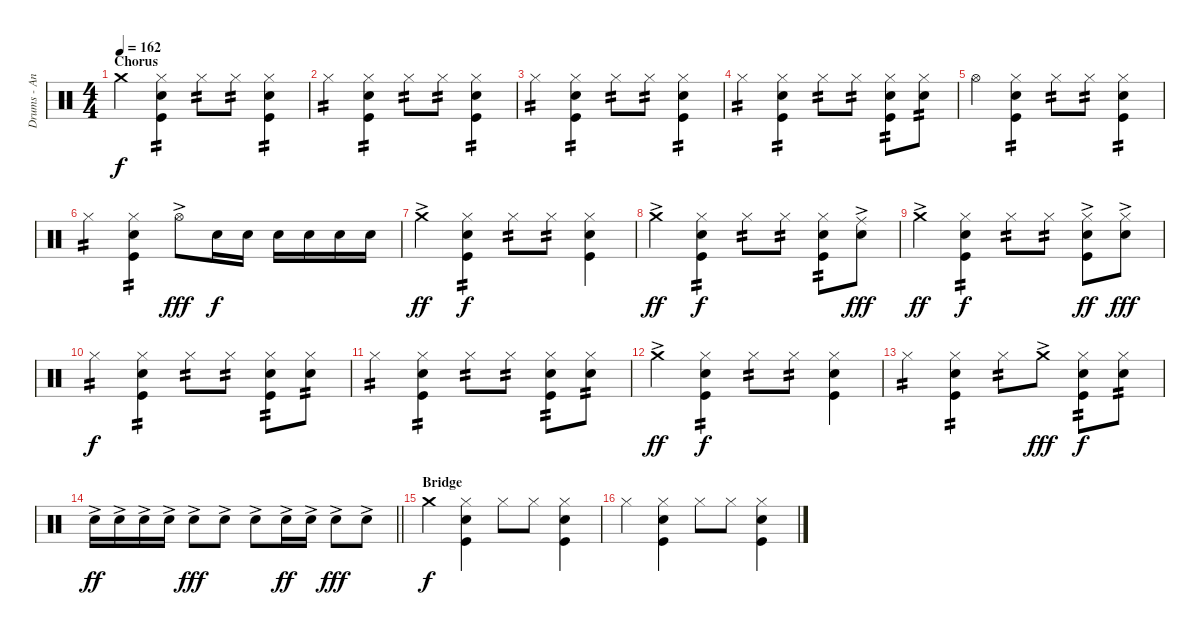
\track ("Drums - Andriushkin" "Drums - An") {instrument percussion}
\staff {score}
\articulation defaults
\ts (4 4)
\section ("" "Chorus")
\tempo 162
\clef neutral
\ks c "Crash medium (hit)".4{dy f}
("Hi-Hat (closed)" "Electric Snare (hit)" "Kick (hit)").4{tp 2} "Hi-Hat (closed)".8{tp 2} "Hi-Hat (closed)".8{tp 2} ("Hi-Hat (closed)" "Electric Snare (hit)" "Kick (hit)").4{tp 2} |
"Hi-Hat (closed)".4{tp 2} ("Hi-Hat (closed)" "Electric Snare (hit)" "Kick (hit)").4{tp 2} "Hi-Hat (closed)".8{tp 2} "Hi-Hat (closed)".8{tp 2} ("Hi-Hat (closed)" "Electric Snare (hit)" "Kick (hit)").4{tp 2} |
"Hi-Hat (closed)".4{tp 2} ("Hi-Hat (closed)" "Electric Snare (hit)" "Kick (hit)").4{tp 2} "Hi-Hat (closed)".8{tp 2} "Hi-Hat (closed)".8{tp 2} ("Hi-Hat (closed)" "Electric Snare (hit)" "Kick (hit)").4{tp 2} |
"Hi-Hat (closed)".4{tp 2} ("Hi-Hat (closed)" "Electric Snare (hit)" "Kick (hit)").4{tp 2} "Hi-Hat (closed)".8{tp 2} "Hi-Hat (closed)".8{tp 2} ("Hi-Hat (closed)" "Electric Snare (hit)" "Kick (hit)").8{tp 2} ("Hi-Hat (closed)" "Electric Snare (hit)").8{tp 2} |
"Hi-Hat (open)".4 ("Hi-Hat (closed)" "Electric Snare (hit)" "Kick (hit)").4{tp 2} "Hi-Hat (closed)".8{tp 2} "Hi-Hat (closed)".8{tp 2} ("Hi-Hat (closed)" "Electric Snare (hit)" "Kick (hit)").4{tp 2} |
"Hi-Hat (closed)".4{tp 2} ("Hi-Hat (closed)" "Electric Snare (hit)" "Kick (hit)").4{tp 2} "Hi-Hat (open)"{ac}.8{dy fff} "Electric Snare (hit)".16{dy f} "Electric Snare (hit)".16 "Electric Snare (hit)".16 "Electric Snare (hit)".16 "Electric Snare (hit)".16 "Electric Snare (hit)".16 |
"Crash medium (hit)"{ac}.4{dy ff} ("Hi-Hat (closed)" "Electric Snare (hit)" "Kick (hit)").4{tp 2 dy f} "Hi-Hat (closed)".8{tp 2} "Hi-Hat (closed)".8{tp 2} ("Hi-Hat (closed)" "Electric Snare (hit)" "Kick (hit)").4 |
"Crash medium (hit)"{ac}.4{dy ff} ("Hi-Hat (closed)" "Electric Snare (hit)" "Kick (hit)").4{tp 2 dy f} "Hi-Hat (closed)".8{tp 2} "Hi-Hat (closed)".8{tp 2} ("Hi-Hat (closed)" "Electric Snare (hit)" "Kick (hit)").8{tp 2} ("Ride (middle)"{ac} "Electric Snare (hit)").8{dy fff} |
"Crash medium (hit)"{ac}.4{dy ff} ("Hi-Hat (closed)" "Electric Snare (hit)" "Kick (hit)").4{tp 2 dy f} "Hi-Hat (closed)".8{tp 2} "Hi-Hat (closed)".8{tp 2} ("Hi-Hat (closed)" "Electric Snare (hit)"{ac} "Kick (hit)").8{dy ff} ("Hi-Hat (closed)" "Electric Snare (hit)"{ac}).8{dy fff} |
"Hi-Hat (closed)".4{tp 2 dy f} ("Hi-Hat (closed)" "Electric Snare (hit)" "Kick (hit)").4{tp 2} "Hi-Hat (closed)".8{tp 2} "Hi-Hat (closed)".8{tp 2} ("Hi-Hat (closed)" "Electric Snare (hit)" "Kick (hit)").8{tp 2} ("Hi-Hat (closed)" "Electric Snare (hit)").8{tp 2} |
"Hi-Hat (closed)".4{tp 2} ("Hi-Hat (closed)" "Electric Snare (hit)" "Kick (hit)").4{tp 2} "Hi-Hat (closed)".8{tp 2} "Hi-Hat (closed)".8{tp 2} ("Hi-Hat (closed)" "Electric Snare (hit)" "Kick (hit)").8{tp 2} ("Hi-Hat (closed)" "Electric Snare (hit)").8{tp 2} |
"Crash medium (hit)"{ac}.4{dy ff} ("Hi-Hat (closed)" "Electric Snare (hit)" "Kick (hit)").4{tp 2 dy f} "Hi-Hat (closed)".8{tp 2} "Hi-Hat (closed)".8{tp 2} ("Hi-Hat (closed)" "Electric Snare (hit)" "Kick (hit)").4 |
"Hi-Hat (closed)".4{tp 2} ("Hi-Hat (closed)" "Electric Snare (hit)" "Kick (hit)").4{tp 2} "Hi-Hat (closed)".8{tp 2} "Crash medium (hit)"{ac}.8{dy fff} ("Hi-Hat (closed)" "Electric Snare (hit)" "Kick (hit)").8{tp 2 dy f} ("Hi-Hat (closed)" "Electric Snare (hit)").8{tp 2} |
\barLineRight lightlight "Electric Snare (hit)"{ac}.16{dy ff} "Electric Snare (hit)"{ac}.16 "Electric Snare (hit)"{ac}.16 "Electric Snare (hit)"{ac}.16 "Electric Snare (hit)"{ac}.8{dy fff} "Electric Snare (hit)"{ac}.8 "Electric Snare (hit)"{ac}.8 "Electric Snare (hit)"{ac}.16{dy ff} "Electric Snare (hit)"{ac}.16 "Electric Snare (hit)"{ac}.8{dy fff} "Electric Snare (hit)"{ac}.8
|
\section ("" "Bridge")
"Crash medium (hit)".4{dy f} ("Hi-Hat (closed)" "Electric Snare (hit)" "Kick (hit)").4 "Hi-Hat (closed)".8 "Hi-Hat (closed)".8 ("Hi-Hat (closed)" "Electric Snare (hit)" "Kick (hit)").4 |
"Hi-Hat (closed)".4 ("Hi-Hat (closed)" "Electric Snare (hit)" "Kick (hit)").4 "Hi-Hat (closed)".8 "Hi-Hat (closed)".8 ("Hi-Hat (closed)" "Electric Snare (hit)" "Kick (hit)").4
